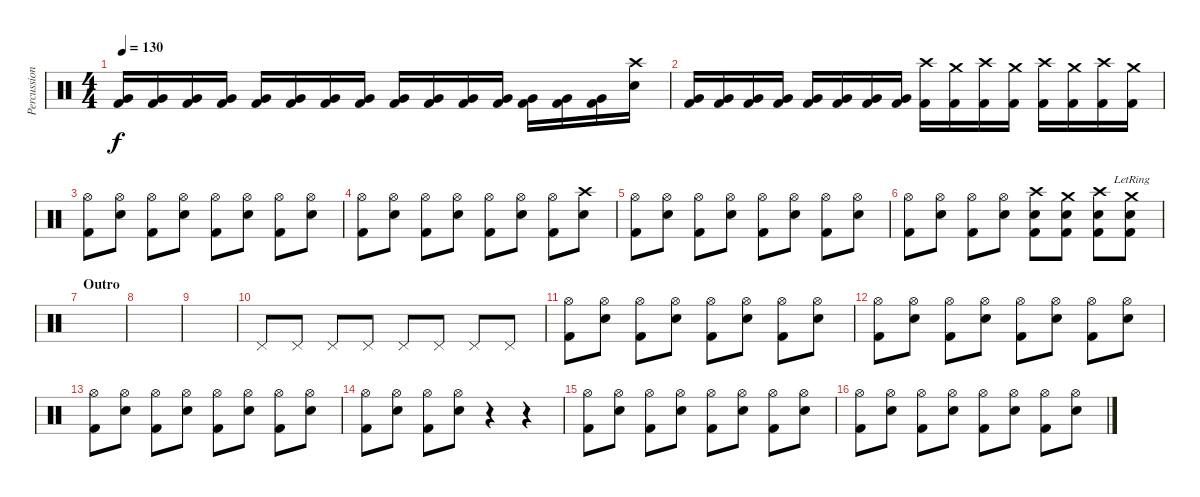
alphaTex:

\track ("Percussion" "Percussion") {instrument percussion}
\staff {score}
\articulation defaults
\ts (4 4)
\tempo 130
\clef neutral
\ks c
("Very Low Tom (hit)" "Kick (hit) 2").16{dy f} ("Very Low Tom (hit)" "Kick (hit) 2").16 ("Very Low Tom (hit)" "Kick (hit) 2").16 ("Very Low Tom (hit)" "Kick (hit) 2").16 ("Very Low Tom (hit)" "Kick (hit) 2").16 ("Very Low Tom (hit)" "Kick (hit) 2").16 ("Very Low Tom (hit)" "Kick (hit) 2").16 ("Very Low Tom (hit)" "Kick (hit) 2").16 ("Very Low Tom (hit)" "Kick (hit) 2").16 ("Very Low Tom (hit)" "Kick (hit) 2").16 ("Very Low Tom (hit)" "Kick (hit) 2").16 ("Very Low Tom (hit)" "Kick (hit) 2").16 ("Very Low Tom (hit)" "Kick (hit) 2").16 ("Very Low Tom (hit)" "Kick (hit) 2").16 ("Very Low Tom (hit)" "Kick (hit) 2").16 ("Crash high (hit)" "Electric Snare (hit)").16 |
("Very Low Tom (hit)" "Kick (hit) 2").16 ("Very Low Tom (hit)" "Kick (hit) 2").16 ("Very Low Tom (hit)" "Kick (hit) 2").16 ("Very Low Tom (hit)" "Kick (hit) 2").16 ("Very Low Tom (hit)" "Kick (hit) 2").16 ("Very Low Tom (hit)" "Kick (hit) 2").16 ("Very Low Tom (hit)" "Kick (hit) 2").16 ("Very Low Tom (hit)" "Kick (hit) 2").16 ("Crash high (hit)" "Kick (hit) 2").16 ("Crash medium (hit)" "Kick (hit) 2").16 ("Crash high (hit)" "Kick (hit) 2").16 ("Crash medium (hit)" "Kick (hit) 2").16 ("Crash high (hit)" "Kick (hit) 2").16 ("Crash medium (hit)" "Kick (hit) 2").16 ("Crash high (hit)" "Kick (hit) 2").16 ("Crash medium (hit)" "Kick (hit) 2").16 |
("Hi-Hat (open)" "Kick (hit) 2").8 ("Hi-Hat (open)" "Electric Snare (hit)").8 ("Hi-Hat (open)" "Kick (hit) 2").8 ("Hi-Hat (open)" "Electric Snare (hit)").8 ("Hi-Hat (open)" "Kick (hit) 2").8 ("Hi-Hat (open)" "Electric Snare (hit)").8 ("Hi-Hat (open)" "Kick (hit) 2").8 ("Hi-Hat (open)" "Electric Snare (hit)").8 |
("Hi-Hat (open)" "Kick (hit) 2").8 ("Hi-Hat (open)" "Electric Snare (hit)").8 ("Hi-Hat (open)" "Kick (hit) 2").8 ("Hi-Hat (open)" "Electric Snare (hit)").8 ("Hi-Hat (open)" "Kick (hit) 2").8 ("Hi-Hat (open)" "Electric Snare (hit)").8 ("Hi-Hat (open)" "Kick (hit) 2").8 ("Crash high (hit)" "Electric Snare (hit)").8 |
("Hi-Hat (open)" "Kick (hit) 2").8 ("Hi-Hat (open)" "Electric Snare (hit)").8 ("Hi-Hat (open)" "Kick (hit) 2").8 ("Hi-Hat (open)" "Electric Snare (hit)").8 ("Hi-Hat (open)" "Kick (hit) 2").8 ("Hi-Hat (open)" "Electric Snare (hit)").8 ("Hi-Hat (open)" "Kick (hit) 2").8 ("Hi-Hat (open)" "Electric Snare (hit)").8 |
("Hi-Hat (open)" "Kick (hit) 2").8 ("Hi-Hat (open)" "Electric Snare (hit)").8 ("Hi-Hat (open)" "Kick (hit) 2").8 ("Hi-Hat (open)" "Electric Snare (hit)").8 ("Crash high (hit)" "Electric Snare (hit)" "Kick (hit) 2").8 ("Crash medium (hit)" "Electric Snare (hit)" "Kick (hit) 2").8 ("Crash high (hit)" "Electric Snare (hit)" "Kick (hit) 2").8 ("Crash medium (hit)"{lr} "Electric Snare (hit)"{lr} "Kick (hit) 2"{lr}).8 |
\section ("" "Outro")
|
|
|
"Pedal Hi-Hat (hit)".8 "Pedal Hi-Hat (hit)".8 "Pedal Hi-Hat (hit)".8 "Pedal Hi-Hat (hit)".8 "Pedal Hi-Hat (hit)".8 "Pedal Hi-Hat (hit)".8 "Pedal Hi-Hat (hit)".8 "Pedal Hi-Hat (hit)".8 |
("Hi-Hat (open)" "Kick (hit) 2").8 ("Hi-Hat (open)" "Electric Snare (hit)").8 ("Hi-Hat (open)" "Kick (hit) 2").8 ("Hi-Hat (open)" "Electric Snare (hit)").8 ("Hi-Hat (open)" "Kick (hit) 2").8 ("Hi-Hat (open)" "Electric Snare (hit)").8 ("Hi-Hat (open)" "Kick (hit) 2").8 ("Hi-Hat (open)" "Electric Snare (hit)").8 |
("Hi-Hat (open)" "Kick (hit) 2").8 ("Hi-Hat (open)" "Electric Snare (hit)").8 ("Hi-Hat (open)" "Kick (hit) 2").8 ("Hi-Hat (open)" "Electric Snare (hit)").8 ("Hi-Hat (open)" "Kick (hit) 2").8 ("Hi-Hat (open)" "Electric Snare (hit)").8 ("Hi-Hat (open)" "Kick (hit) 2").8 ("Hi-Hat (open)" "Electric Snare (hit)").8 |
("Hi-Hat (open)" "Kick (hit) 2").8 ("Hi-Hat (open)" "Electric Snare (hit)").8 ("Hi-Hat (open)" "Kick (hit) 2").8 ("Hi-Hat (open)" "Electric Snare (hit)").8 ("Hi-Hat (open)" "Kick (hit) 2").8 ("Hi-Hat (open)" "Electric Snare (hit)").8 ("Hi-Hat (open)" "Kick (hit) 2").8 ("Hi-Hat (open)" "Electric Snare (hit)").8 |
("Hi-Hat (open)" "Kick (hit) 2").8 ("Hi-Hat (open)" "Electric Snare (hit)").8 ("Hi-Hat (open)" "Kick (hit) 2").8 ("Hi-Hat (open)" "Electric Snare (hit)").8 r.4 r.4 |
("Hi-Hat (open)" "Kick (hit) 2").8 ("Hi-Hat (open)" "Electric Snare (hit)").8 ("Hi-Hat (open)" "Kick (hit) 2").8 ("Hi-Hat (open)" "Electric Snare (hit)").8 ("Hi-Hat (open)" "Kick (hit) 2").8 ("Hi-Hat (open)" "Electric Snare (hit)").8 ("Hi-Hat (open)" "Kick (hit) 2").8 ("Hi-Hat (open)" "Electric Snare (hit)").8 |
("Hi-Hat (open)" "Kick (hit) 2").8 ("Hi-Hat (open)" "Electric Snare (hit)").8 ("Hi-Hat (open)" "Kick (hit) 2").8 ("Hi-Hat (open)" "Electric Snare (hit)").8 ("Hi-Hat (open)" "Kick (hit) 2").8 ("Hi-Hat (open)" "Electric Snare (hit)").8 ("Hi-Hat (open)" "Kick (hit) 2").8 ("Hi-Hat (open)" "Electric Snare (hit)").8
